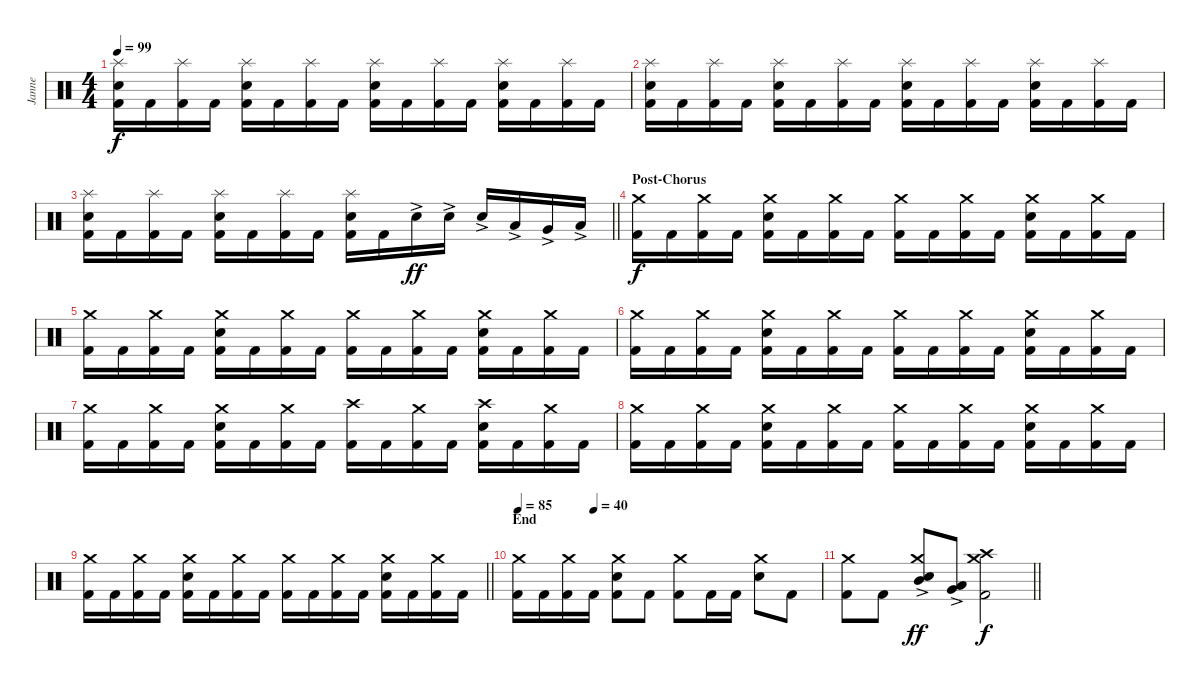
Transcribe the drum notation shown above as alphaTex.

\track ("Janne" "Janne") {instrument percussion}
\staff {score}
\articulation defaults
\ts (4 4)
\tempo 99
\clef neutral
\ks c
("Kick (hit) 2" "Snare (hit) 2" "Splash (hit)").16{dy f} "Kick (hit) 2".16 ("Kick (hit) 2" "Splash (hit)").16 "Kick (hit) 2".16 ("Kick (hit) 2" "Snare (hit) 2" "Splash (hit)").16 "Kick (hit) 2".16 ("Kick (hit) 2" "Splash (hit)").16 "Kick (hit) 2".16 ("Kick (hit) 2" "Snare (hit) 2" "Splash (hit)").16 "Kick (hit) 2".16 ("Kick (hit) 2" "Splash (hit)").16 "Kick (hit) 2".16 ("Kick (hit) 2" "Snare (hit) 2" "Splash (hit)").16 "Kick (hit) 2".16 ("Kick (hit) 2" "Splash (hit)").16 "Kick (hit) 2".16 |
("Kick (hit) 2" "Snare (hit) 2" "Splash (hit)").16 "Kick (hit) 2".16 ("Kick (hit) 2" "Splash (hit)").16 "Kick (hit) 2".16 ("Kick (hit) 2" "Snare (hit) 2" "Splash (hit)").16 "Kick (hit) 2".16 ("Kick (hit) 2" "Splash (hit)").16 "Kick (hit) 2".16 ("Kick (hit) 2" "Snare (hit) 2" "Splash (hit)").16 "Kick (hit) 2".16 ("Kick (hit) 2" "Splash (hit)").16 "Kick (hit) 2".16 ("Kick (hit) 2" "Snare (hit) 2" "Splash (hit)").16 "Kick (hit) 2".16 ("Kick (hit) 2" "Splash (hit)").16 "Kick (hit) 2".16 |
\barLineRight lightlight
("Kick (hit) 2" "Snare (hit) 2" "Splash (hit)").16 "Kick (hit) 2".16 ("Kick (hit) 2" "Splash (hit)").16 "Kick (hit) 2".16 ("Kick (hit) 2" "Snare (hit) 2" "Splash (hit)").16 "Kick (hit) 2".16 ("Kick (hit) 2" "Splash (hit)").16 "Kick (hit) 2".16 ("Kick (hit) 2" "Snare (hit) 2" "Splash (hit)").16 "Kick (hit) 2".16 "Snare (hit) 2"{ac}.16{dy ff} "Snare (hit) 2"{ac}.16 "Snare (hit) 2"{ac}.16 "Low Tom (hit)"{ac}.16 "Very Low Tom (hit)"{ac}.16 "Low Floor Tom (hit)"{ac}.16 |
\section ("" "Post-Chorus")
("Kick (hit) 2" "Crash medium (hit)").16{dy f} "Kick (hit) 2".16 ("Kick (hit) 2" "Crash medium (hit)").16 "Kick (hit) 2".16 ("Kick (hit) 2" "Snare (hit) 2" "Crash medium (hit)").16 "Kick (hit) 2".16 ("Kick (hit) 2" "Crash medium (hit)").16 "Kick (hit) 2".16 ("Kick (hit) 2" "Crash medium (hit)").16 "Kick (hit) 2".16 ("Kick (hit) 2" "Crash medium (hit)").16 "Kick (hit) 2".16 ("Kick (hit) 2" "Snare (hit) 2" "Crash medium (hit)").16 "Kick (hit) 2".16 ("Kick (hit) 2" "Crash medium (hit)").16 "Kick (hit) 2".16 |
("Kick (hit) 2" "Crash medium (hit)").16 "Kick (hit) 2".16 ("Kick (hit) 2" "Crash medium (hit)").16 "Kick (hit) 2".16 ("Kick (hit) 2" "Snare (hit) 2" "Crash medium (hit)").16 "Kick (hit) 2".16 ("Kick (hit) 2" "Crash medium (hit)").16 "Kick (hit) 2".16 ("Kick (hit) 2" "Crash medium (hit)").16 "Kick (hit) 2".16 ("Kick (hit) 2" "Crash medium (hit)").16 "Kick (hit) 2".16 ("Kick (hit) 2" "Snare (hit) 2" "Crash medium (hit)").16 "Kick (hit) 2".16 ("Kick (hit) 2" "Crash medium (hit)").16 "Kick (hit) 2".16 |
("Kick (hit) 2" "Crash medium (hit)").16 "Kick (hit) 2".16 ("Kick (hit) 2" "Crash medium (hit)").16 "Kick (hit) 2".16 ("Kick (hit) 2" "Snare (hit) 2" "Crash medium (hit)").16 "Kick (hit) 2".16 ("Kick (hit) 2" "Crash medium (hit)").16 "Kick (hit) 2".16 ("Kick (hit) 2" "Crash medium (hit)").16 "Kick (hit) 2".16 ("Kick (hit) 2" "Crash medium (hit)").16 "Kick (hit) 2".16 ("Kick (hit) 2" "Snare (hit) 2" "Crash medium (hit)").16 "Kick (hit) 2".16 ("Kick (hit) 2" "Crash medium (hit)").16 "Kick (hit) 2".16 |
("Kick (hit) 2" "Crash medium (hit)").16 "Kick (hit) 2".16 ("Kick (hit) 2" "Crash medium (hit)").16 "Kick (hit) 2".16 ("Kick (hit) 2" "Snare (hit) 2" "Crash medium (hit)").16 "Kick (hit) 2".16 ("Kick (hit) 2" "Crash medium (hit)").16 "Kick (hit) 2".16 ("Kick (hit) 2" "Crash high (hit)").16 "Kick (hit) 2".16 ("Kick (hit) 2" "Crash medium (hit)").16 "Kick (hit) 2".16 ("Kick (hit) 2" "Snare (hit) 2" "Crash high (hit)").16 "Kick (hit) 2".16 ("Kick (hit) 2" "Crash medium (hit)").16 "Kick (hit) 2".16 |
("Kick (hit) 2" "Crash medium (hit)").16 "Kick (hit) 2".16 ("Kick (hit) 2" "Crash medium (hit)").16 "Kick (hit) 2".16 ("Kick (hit) 2" "Snare (hit) 2" "Crash medium (hit)").16 "Kick (hit) 2".16 ("Kick (hit) 2" "Crash medium (hit)").16 "Kick (hit) 2".16 ("Kick (hit) 2" "Crash medium (hit)").16 "Kick (hit) 2".16 ("Kick (hit) 2" "Crash medium (hit)").16 "Kick (hit) 2".16 ("Kick (hit) 2" "Snare (hit) 2" "Crash medium (hit)").16 "Kick (hit) 2".16 ("Kick (hit) 2" "Crash medium (hit)").16 "Kick (hit) 2".16 |
\barLineRight lightlight
("Kick (hit) 2" "Crash medium (hit)").16 "Kick (hit) 2".16 ("Kick (hit) 2" "Crash medium (hit)").16 "Kick (hit) 2".16 ("Kick (hit) 2" "Snare (hit) 2" "Crash medium (hit)").16 "Kick (hit) 2".16 ("Kick (hit) 2" "Crash medium (hit)").16 "Kick (hit) 2".16 ("Kick (hit) 2" "Crash medium (hit)").16 "Kick (hit) 2".16 ("Kick (hit) 2" "Crash medium (hit)").16 "Kick (hit) 2".16 ("Kick (hit) 2" "Snare (hit) 2" "Crash medium (hit)").16 "Kick (hit) 2".16 ("Kick (hit) 2" "Crash medium (hit)").16 "Kick (hit) 2".16 |
\section ("" "End")
\tempo 85
\tempo (40 0.25)
("Kick (hit) 2" "Crash medium (hit)").16 "Kick (hit) 2".16 ("Kick (hit) 2" "Crash medium (hit)").16 "Kick (hit) 2".16 ("Kick (hit) 2" "Snare (hit) 2" "Crash medium (hit)").8 "Kick (hit) 2".8 ("Kick (hit) 2" "Crash medium (hit)").8 "Kick (hit) 2".16 "Kick (hit) 2".16 ("Snare (hit) 2" "Crash medium (hit)").8 "Kick (hit) 2".8 |
\barLineRight lightlight
("Kick (hit) 2" "Crash medium (hit)").8 "Kick (hit) 2".8 ("Snare (hit) 2" "Mid Tom (hit)"{ac} "Crash medium (hit)").8{dy ff} ("Low Tom (hit)"{ac} "Very Low Tom (hit)"{ac}).8 ("Kick (hit) 2" "Crash medium (hit)" "Crash high (hit)").2{dy f}
